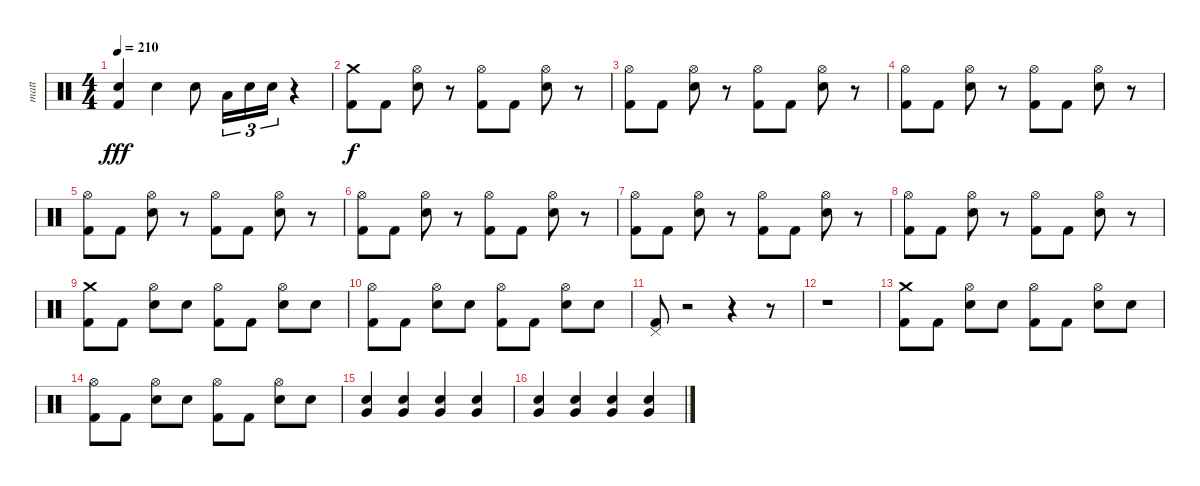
\track ("matt" "matt") {instrument percussion}
\staff {score}
\articulation defaults
\ts (4 4)
\tempo 210
\clef neutral
\ks c
("Electric Snare (hit)" "Kick (hit) 2").4{dy fff} "Electric Snare (hit)".4 "Electric Snare (hit)".8 "Low Floor Tom (hit)".16{tu (3 2)} "Electric Snare (hit)".16{tu (3 2)} "Electric Snare (hit)".16{tu (3 2)} r.4 |
("Crash medium (hit)" "Kick (hit) 2").8{dy f} "Kick (hit) 2".8 ("Hi-Hat (open)" "Electric Snare (hit)").8 r.8 ("Hi-Hat (open)" "Kick (hit) 2").8 "Kick (hit) 2".8 ("Hi-Hat (open)" "Electric Snare (hit)").8 r.8 |
("Hi-Hat (open)" "Kick (hit) 2").8 "Kick (hit) 2".8 ("Hi-Hat (open)" "Electric Snare (hit)").8 r.8 ("Hi-Hat (open)" "Kick (hit) 2").8 "Kick (hit) 2".8 ("Hi-Hat (open)" "Electric Snare (hit)").8 r.8 |
("Hi-Hat (open)" "Kick (hit) 2").8 "Kick (hit) 2".8 ("Hi-Hat (open)" "Electric Snare (hit)").8 r.8 ("Hi-Hat (open)" "Kick (hit) 2").8 "Kick (hit) 2".8 ("Hi-Hat (open)" "Electric Snare (hit)").8 r.8 |
("Hi-Hat (open)" "Kick (hit) 2").8 "Kick (hit) 2".8 ("Hi-Hat (open)" "Electric Snare (hit)").8 r.8 ("Hi-Hat (open)" "Kick (hit) 2").8 "Kick (hit) 2".8 ("Hi-Hat (open)" "Electric Snare (hit)").8 r.8 |
("Hi-Hat (open)" "Kick (hit) 2").8 "Kick (hit) 2".8 ("Hi-Hat (open)" "Electric Snare (hit)").8 r.8 ("Hi-Hat (open)" "Kick (hit) 2").8 "Kick (hit) 2".8 ("Hi-Hat (open)" "Electric Snare (hit)").8 r.8 |
("Hi-Hat (open)" "Kick (hit) 2").8 "Kick (hit) 2".8 ("Hi-Hat (open)" "Electric Snare (hit)").8 r.8 ("Hi-Hat (open)" "Kick (hit) 2").8 "Kick (hit) 2".8 ("Hi-Hat (open)" "Electric Snare (hit)").8 r.8 |
("Hi-Hat (open)" "Kick (hit) 2").8 "Kick (hit) 2".8 ("Hi-Hat (open)" "Electric Snare (hit)").8 r.8 ("Hi-Hat (open)" "Kick (hit) 2").8 "Kick (hit) 2".8 ("Hi-Hat (open)" "Electric Snare (hit)").8 r.8 |
("Crash medium (hit)" "Kick (hit) 2").8 "Kick (hit) 2".8 ("Hi-Hat (open)" "Electric Snare (hit)").8 "Electric Snare (hit)".8 ("Hi-Hat (open)" "Kick (hit) 2").8 "Kick (hit) 2".8 ("Hi-Hat (open)" "Electric Snare (hit)").8 "Electric Snare (hit)".8 |
("Hi-Hat (open)" "Kick (hit) 2").8 "Kick (hit) 2".8 ("Hi-Hat (open)" "Electric Snare (hit)").8 "Electric Snare (hit)".8 ("Hi-Hat (open)" "Kick (hit) 2").8 "Kick (hit) 2".8 ("Hi-Hat (open)" "Electric Snare (hit)").8 "Electric Snare (hit)".8 |
("Pedal Hi-Hat (hit)" "Kick (hit) 2").8 r.2 r.4 r.8 |
r.1 |
("Crash medium (hit)" "Kick (hit) 2").8 "Kick (hit) 2".8 ("Hi-Hat (open)" "Electric Snare (hit)").8 "Electric Snare (hit)".8 ("Hi-Hat (open)" "Kick (hit) 2").8 "Kick (hit) 2".8 ("Hi-Hat (open)" "Electric Snare (hit)").8 "Electric Snare (hit)".8 |
("Hi-Hat (open)" "Kick (hit) 2").8 "Kick (hit) 2".8 ("Hi-Hat (open)" "Electric Snare (hit)").8 "Electric Snare (hit)".8 ("Hi-Hat (open)" "Kick (hit) 2").8 "Kick (hit) 2".8 ("Hi-Hat (open)" "Electric Snare (hit)").8 "Electric Snare (hit)".8 |
("Very Low Tom (hit)" "Electric Snare (hit)").4 ("Very Low Tom (hit)" "Electric Snare (hit)").4 ("Very Low Tom (hit)" "Electric Snare (hit)").4 ("Very Low Tom (hit)" "Electric Snare (hit)").4 |
("Very Low Tom (hit)" "Electric Snare (hit)").4 ("Very Low Tom (hit)" "Electric Snare (hit)").4 ("Very Low Tom (hit)" "Electric Snare (hit)").4 ("Very Low Tom (hit)" "Electric Snare (hit)").4
